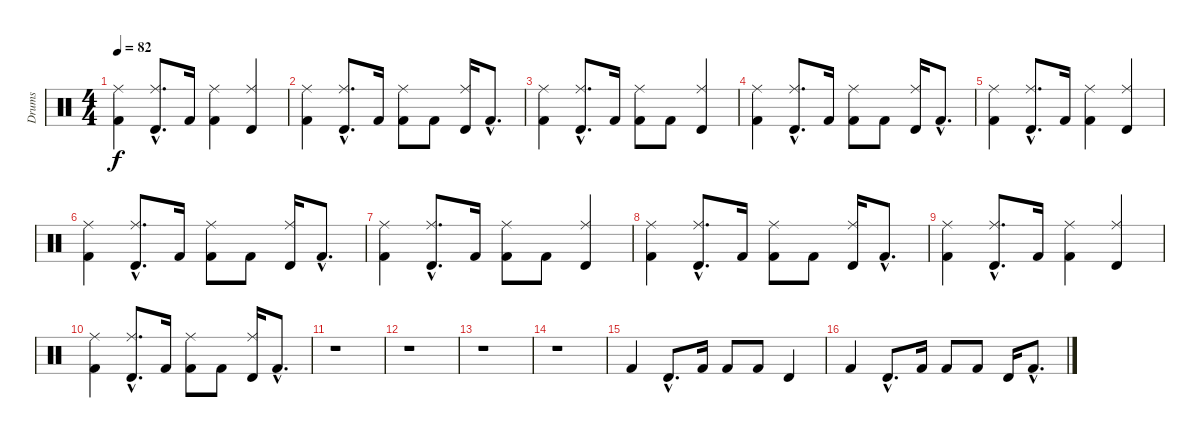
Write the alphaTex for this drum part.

\track ("Drums" "Drums") {instrument percussion}
\staff {score}
\articulation defaults
\ts (4 4)
\tempo 82
\clef neutral
\ks c
("Ride (middle)" "Kick (hit) 2").4{dy f} ("Ride (middle)"{hac} "Timbale high (hit)"{hac}).8{d} "Kick (hit) 2".16 ("Ride (middle)" "Kick (hit) 2").4 ("Ride (middle)" "Timbale high (hit)").4 |
("Ride (middle)" "Kick (hit) 2").4 ("Ride (middle)"{hac} "Timbale high (hit)"{hac}).8{d} "Kick (hit) 2".16 ("Ride (middle)" "Kick (hit) 2").8 "Kick (hit) 2".8 ("Ride (middle)" "Timbale high (hit)").16 "Kick (hit) 2"{hac}.8{d} |
("Ride (middle)" "Kick (hit) 2").4 ("Ride (middle)"{hac} "Timbale high (hit)"{hac}).8{d} "Kick (hit) 2".16 ("Ride (middle)" "Kick (hit) 2").8 "Kick (hit) 2".8 ("Ride (middle)" "Timbale high (hit)").4 |
("Ride (middle)" "Kick (hit) 2").4 ("Ride (middle)"{hac} "Timbale high (hit)"{hac}).8{d} "Kick (hit) 2".16 ("Ride (middle)" "Kick (hit) 2").8 "Kick (hit) 2".8 ("Ride (middle)" "Timbale high (hit)").16 "Kick (hit) 2"{hac}.8{d} |
("Ride (middle)" "Kick (hit) 2").4 ("Ride (middle)"{hac} "Timbale high (hit)"{hac}).8{d} "Kick (hit) 2".16 ("Ride (middle)" "Kick (hit) 2").4 ("Ride (middle)" "Timbale high (hit)").4 |
("Ride (middle)" "Kick (hit) 2").4 ("Ride (middle)"{hac} "Timbale high (hit)"{hac}).8{d} "Kick (hit) 2".16 ("Ride (middle)" "Kick (hit) 2").8 "Kick (hit) 2".8 ("Ride (middle)" "Timbale high (hit)").16 "Kick (hit) 2"{hac}.8{d} |
("Ride (middle)" "Kick (hit) 2").4 ("Ride (middle)"{hac} "Timbale high (hit)"{hac}).8{d} "Kick (hit) 2".16 ("Ride (middle)" "Kick (hit) 2").8 "Kick (hit) 2".8 ("Ride (middle)" "Timbale high (hit)").4 |
("Ride (middle)" "Kick (hit) 2").4 ("Ride (middle)"{hac} "Timbale high (hit)"{hac}).8{d} "Kick (hit) 2".16 ("Ride (middle)" "Kick (hit) 2").8 "Kick (hit) 2".8 ("Ride (middle)" "Timbale high (hit)").16 "Kick (hit) 2"{hac}.8{d} |
("Ride (middle)" "Kick (hit) 2").4 ("Ride (middle)"{hac} "Timbale high (hit)"{hac}).8{d} "Kick (hit) 2".16 ("Ride (middle)" "Kick (hit) 2").4 ("Ride (middle)" "Timbale high (hit)").4 |
("Ride (middle)" "Kick (hit) 2").4 ("Ride (middle)"{hac} "Timbale high (hit)"{hac}).8{d} "Kick (hit) 2".16 ("Ride (middle)" "Kick (hit) 2").8 "Kick (hit) 2".8 ("Ride (middle)" "Timbale high (hit)").16 "Kick (hit) 2"{hac}.8{d} |
r.1 |
r.1 |
r.1 |
r.1 |
"Kick (hit) 2".4 "Timbale high (hit)"{hac}.8{d} "Kick (hit) 2".16 "Kick (hit) 2".8 "Kick (hit) 2".8 "Timbale high (hit)".4 |
"Kick (hit) 2".4 "Timbale high (hit)"{hac}.8{d} "Kick (hit) 2".16 "Kick (hit) 2".8 "Kick (hit) 2".8 "Timbale high (hit)".16 "Kick (hit) 2"{hac}.8{d}
